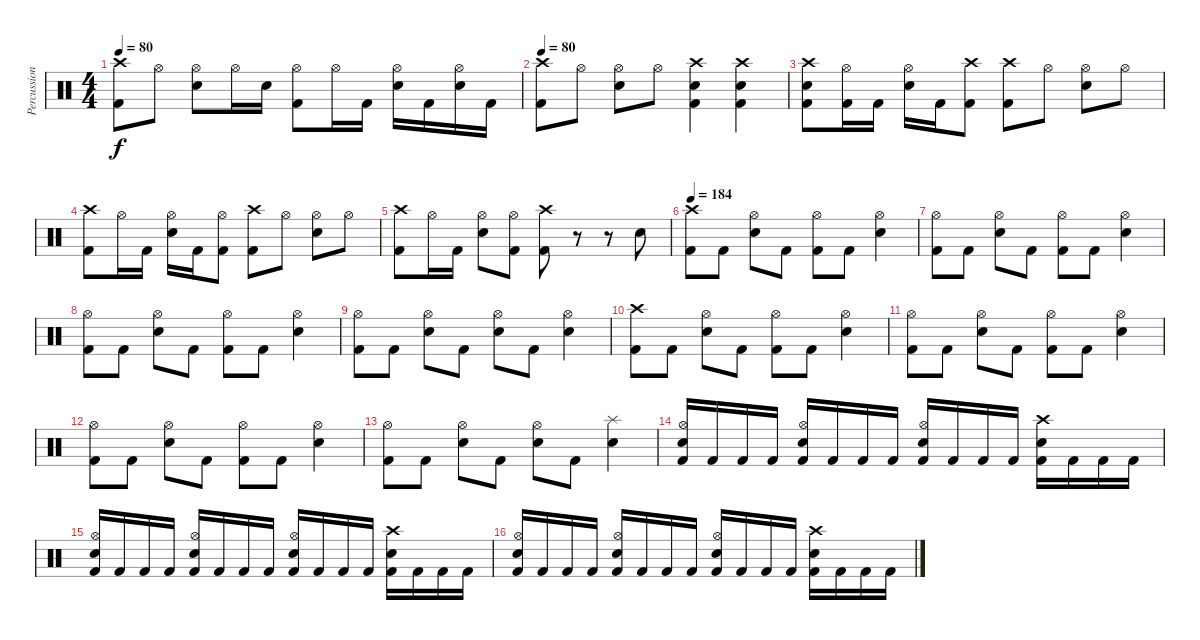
\track ("Percussion" "Percussion") {instrument percussion}
\staff {score}
\articulation defaults
\ts (4 4)
\tempo 80
\clef neutral
\ks c
("Crash high (hit)" "Kick (hit) 2").8{dy f} "Hi-Hat (open)".8 ("Hi-Hat (open)" "Electric Snare (hit)").8 "Hi-Hat (open)".16 "Electric Snare (hit)".16 ("Hi-Hat (open)" "Kick (hit) 2").8 "Hi-Hat (open)".16 "Kick (hit) 2".16 ("Hi-Hat (open)" "Electric Snare (hit)").16 "Kick (hit) 2".16 ("Hi-Hat (open)" "Electric Snare (hit)").16 "Kick (hit) 2".16 |
\tempo 80
("Crash high (hit)" "Kick (hit) 2").8 "Hi-Hat (open)".8 ("Hi-Hat (open)" "Electric Snare (hit)").8 "Hi-Hat (open)".8 ("Crash high (hit)" "Electric Snare (hit)" "Kick (hit) 2").4 ("Crash high (hit)" "Electric Snare (hit)" "Kick (hit) 2").4 |
("Crash high (hit)" "Electric Snare (hit)" "Kick (hit) 2").8 ("Hi-Hat (open)" "Kick (hit) 2").16 "Kick (hit) 2".16 ("Hi-Hat (open)" "Electric Snare (hit)").16 "Kick (hit) 2".16 ("Crash high (hit)" "Kick (hit) 2").8 ("Crash high (hit)" "Kick (hit) 2").8 "Hi-Hat (open)".8 ("Hi-Hat (open)" "Electric Snare (hit)").8 "Hi-Hat (open)".8 |
("Crash high (hit)" "Kick (hit) 2").8 "Hi-Hat (open)".16 "Kick (hit) 2".16 ("Hi-Hat (open)" "Electric Snare (hit)").16 "Kick (hit) 2".16 ("Hi-Hat (open)" "Kick (hit) 2").8 ("Crash high (hit)" "Kick (hit) 2").8 "Hi-Hat (open)".8 ("Hi-Hat (open)" "Electric Snare (hit)").8 "Hi-Hat (open)".8 |
("Crash high (hit)" "Kick (hit) 2").8 "Hi-Hat (open)".16 "Kick (hit) 2".16 ("Hi-Hat (open)" "Electric Snare (hit)").8 ("Hi-Hat (open)" "Kick (hit) 2").8 ("Crash high (hit)" "Kick (hit) 2").8 r.8 r.8 "Electric Snare (hit)".8 |
\tempo 184
("Crash high (hit)" "Kick (hit) 2").8 "Kick (hit) 2".8 ("Hi-Hat (open)" "Electric Snare (hit)").8 "Kick (hit) 2".8 ("Hi-Hat (open)" "Kick (hit) 2").8 "Kick (hit) 2".8 ("Hi-Hat (open)" "Electric Snare (hit)").4 |
("Hi-Hat (open)" "Kick (hit) 2").8 "Kick (hit) 2".8 ("Hi-Hat (open)" "Electric Snare (hit)").8 "Kick (hit) 2".8 ("Hi-Hat (open)" "Kick (hit) 2").8 "Kick (hit) 2".8 ("Hi-Hat (open)" "Electric Snare (hit)").4 |
("Hi-Hat (open)" "Kick (hit) 2").8 "Kick (hit) 2".8 ("Hi-Hat (open)" "Electric Snare (hit)").8 "Kick (hit) 2".8 ("Hi-Hat (open)" "Kick (hit) 2").8 "Kick (hit) 2".8 ("Hi-Hat (open)" "Electric Snare (hit)").4 |
("Hi-Hat (open)" "Kick (hit) 2").8 "Kick (hit) 2".8 ("Hi-Hat (open)" "Electric Snare (hit)").8 "Kick (hit) 2".8 ("Hi-Hat (open)" "Electric Snare (hit)").8 "Kick (hit) 2".8 ("Hi-Hat (open)" "Electric Snare (hit)").4 |
("Crash high (hit)" "Kick (hit) 2").8 "Kick (hit) 2".8 ("Hi-Hat (open)" "Electric Snare (hit)").8 "Kick (hit) 2".8 ("Hi-Hat (open)" "Kick (hit) 2").8 "Kick (hit) 2".8 ("Hi-Hat (open)" "Electric Snare (hit)").4 |
("Hi-Hat (open)" "Kick (hit) 2").8 "Kick (hit) 2".8 ("Hi-Hat (open)" "Electric Snare (hit)").8 "Kick (hit) 2".8 ("Hi-Hat (open)" "Kick (hit) 2").8 "Kick (hit) 2".8 ("Hi-Hat (open)" "Electric Snare (hit)").4 |
("Hi-Hat (open)" "Kick (hit) 2").8 "Kick (hit) 2".8 ("Hi-Hat (open)" "Electric Snare (hit)").8 "Kick (hit) 2".8 ("Hi-Hat (open)" "Kick (hit) 2").8 "Kick (hit) 2".8 ("Hi-Hat (open)" "Electric Snare (hit)").4 |
("Hi-Hat (open)" "Kick (hit) 2").8 "Kick (hit) 2".8 ("Hi-Hat (open)" "Electric Snare (hit)").8 "Kick (hit) 2".8 ("Hi-Hat (open)" "Electric Snare (hit)").8 "Kick (hit) 2".8 ("Splash (hit)" "Electric Snare (hit)").4 |
("Hi-Hat (open)" "Electric Snare (hit)" "Kick (hit) 2").16 "Kick (hit) 2".16 "Kick (hit) 2".16 "Kick (hit) 2".16 ("Hi-Hat (open)" "Electric Snare (hit)" "Kick (hit) 2").16 "Kick (hit) 2".16 "Kick (hit) 2".16 "Kick (hit) 2".16 ("Hi-Hat (open)" "Electric Snare (hit)" "Kick (hit) 2").16 "Kick (hit) 2".16 "Kick (hit) 2".16 "Kick (hit) 2".16 ("Crash high (hit)" "Electric Snare (hit)" "Kick (hit) 2").16 "Kick (hit) 2".16 "Kick (hit) 2".16 "Kick (hit) 2".16 |
("Hi-Hat (open)" "Electric Snare (hit)" "Kick (hit) 2").16 "Kick (hit) 2".16 "Kick (hit) 2".16 "Kick (hit) 2".16 ("Hi-Hat (open)" "Electric Snare (hit)" "Kick (hit) 2").16 "Kick (hit) 2".16 "Kick (hit) 2".16 "Kick (hit) 2".16 ("Hi-Hat (open)" "Electric Snare (hit)" "Kick (hit) 2").16 "Kick (hit) 2".16 "Kick (hit) 2".16 "Kick (hit) 2".16 ("Crash high (hit)" "Electric Snare (hit)" "Kick (hit) 2").16 "Kick (hit) 2".16 "Kick (hit) 2".16 "Kick (hit) 2".16 |
("Hi-Hat (open)" "Electric Snare (hit)" "Kick (hit) 2").16 "Kick (hit) 2".16 "Kick (hit) 2".16 "Kick (hit) 2".16 ("Hi-Hat (open)" "Electric Snare (hit)" "Kick (hit) 2").16 "Kick (hit) 2".16 "Kick (hit) 2".16 "Kick (hit) 2".16 ("Hi-Hat (open)" "Electric Snare (hit)" "Kick (hit) 2").16 "Kick (hit) 2".16 "Kick (hit) 2".16 "Kick (hit) 2".16 ("Crash high (hit)" "Electric Snare (hit)" "Kick (hit) 2").16 "Kick (hit) 2".16 "Kick (hit) 2".16 "Kick (hit) 2".16
